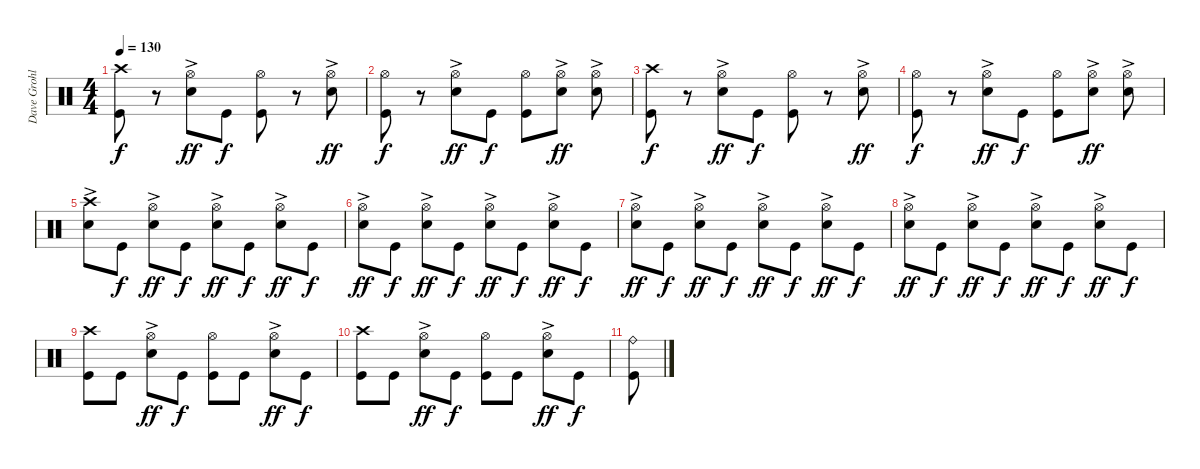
\track ("Dave Grohl" "Dave Grohl") {instrument percussion}
\staff {score}
\articulation defaults
\ts (4 4)
\tempo 130
\clef neutral
\ks c
("Crash high (hit)" "Kick (hit)").8{dy f} r.8 ("Hi-Hat (open)" "Electric Snare (hit)"{ac}).8{dy ff} "Kick (hit)".8{dy f} ("Hi-Hat (open)" "Kick (hit)").8 r.8 ("Hi-Hat (open)" "Electric Snare (hit)"{ac}).8{dy ff} |
("Hi-Hat (open)" "Kick (hit)").8{dy f} r.8 ("Hi-Hat (open)" "Electric Snare (hit)"{ac}).8{dy ff} "Kick (hit)".8{dy f} ("Hi-Hat (open)" "Kick (hit)").8 ("Hi-Hat (open)" "Electric Snare (hit)"{ac}).8{dy ff} ("Hi-Hat (open)" "Electric Snare (hit)"{ac}).8 |
("Crash high (hit)" "Kick (hit)").8{dy f} r.8 ("Hi-Hat (open)" "Electric Snare (hit)"{ac}).8{dy ff} "Kick (hit)".8{dy f} ("Hi-Hat (open)" "Kick (hit)").8 r.8 ("Hi-Hat (open)" "Electric Snare (hit)"{ac}).8{dy ff} |
("Hi-Hat (open)" "Kick (hit)").8{dy f} r.8 ("Hi-Hat (open)" "Electric Snare (hit)"{ac}).8{dy ff} "Kick (hit)".8{dy f} ("Hi-Hat (open)" "Kick (hit)").8 ("Hi-Hat (open)" "Electric Snare (hit)"{ac}).8{dy ff} ("Hi-Hat (open)" "Electric Snare (hit)"{ac}).8 |
("Crash high (hit)" "Electric Snare (hit)"{ac}).8 "Kick (hit)".8{dy f} ("Hi-Hat (open)" "Electric Snare (hit)"{ac}).8{dy ff} "Kick (hit)".8{dy f} ("Hi-Hat (open)" "Electric Snare (hit)"{ac}).8{dy ff} "Kick (hit)".8{dy f} ("Hi-Hat (open)" "Electric Snare (hit)"{ac}).8{dy ff} "Kick (hit)".8{dy f} |
("Hi-Hat (open)" "Electric Snare (hit)"{ac}).8{dy ff} "Kick (hit)".8{dy f} ("Hi-Hat (open)" "Electric Snare (hit)"{ac}).8{dy ff} "Kick (hit)".8{dy f} ("Hi-Hat (open)" "Electric Snare (hit)"{ac}).8{dy ff} "Kick (hit)".8{dy f} ("Hi-Hat (open)" "Electric Snare (hit)"{ac}).8{dy ff} "Kick (hit)".8{dy f} |
("Hi-Hat (open)" "Electric Snare (hit)"{ac}).8{dy ff} "Kick (hit)".8{dy f} ("Hi-Hat (open)" "Electric Snare (hit)"{ac}).8{dy ff} "Kick (hit)".8{dy f} ("Hi-Hat (open)" "Electric Snare (hit)"{ac}).8{dy ff} "Kick (hit)".8{dy f} ("Hi-Hat (open)" "Electric Snare (hit)"{ac}).8{dy ff} "Kick (hit)".8{dy f} |
("Hi-Hat (open)" "Electric Snare (hit)"{ac}).8{dy ff} "Kick (hit)".8{dy f} ("Hi-Hat (open)" "Electric Snare (hit)"{ac}).8{dy ff} "Kick (hit)".8{dy f} ("Hi-Hat (open)" "Electric Snare (hit)"{ac}).8{dy ff} "Kick (hit)".8{dy f} ("Hi-Hat (open)" "Electric Snare (hit)"{ac}).8{dy ff} "Kick (hit)".8{dy f} |
("Crash high (hit)" "Kick (hit)").8 "Kick (hit)".8 ("Hi-Hat (open)" "Electric Snare (hit)"{ac}).8{dy ff} "Kick (hit)".8{dy f} ("Hi-Hat (open)" "Kick (hit)").8 "Kick (hit)".8 ("Hi-Hat (open)" "Electric Snare (hit)"{ac}).8{dy ff} "Kick (hit)".8{dy f} |
("Crash high (hit)" "Kick (hit)").8 "Kick (hit)".8 ("Hi-Hat (open)" "Electric Snare (hit)"{ac}).8{dy ff} "Kick (hit)".8{dy f} ("Hi-Hat (open)" "Kick (hit)").8 "Kick (hit)".8 ("Hi-Hat (open)" "Electric Snare (hit)"{ac}).8{dy ff} "Kick (hit)".8{dy f} |
("Ride (bell)" "Kick (hit)").8
